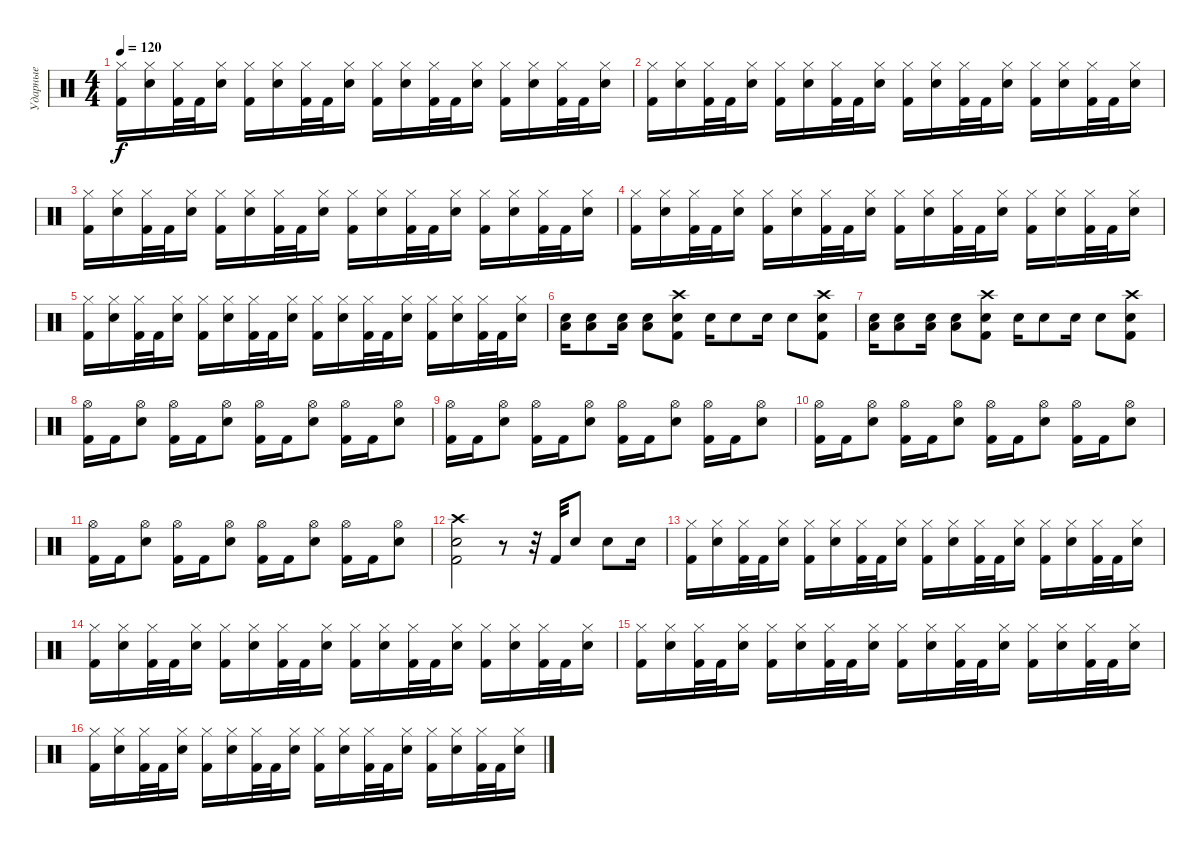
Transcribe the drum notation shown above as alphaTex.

\track ("Ударные" "Ударные") {instrument percussion}
\staff {score}
\articulation defaults
\ts (4 4)
\tempo 120
\clef neutral
\ks c
("Hi-Hat (closed)" "Kick (hit) 2").16{dy f} ("Hi-Hat (closed)" "Electric Snare (hit)").16 ("Hi-Hat (closed)" "Kick (hit) 2").32 "Kick (hit) 2".32 ("Hi-Hat (closed)" "Electric Snare (hit)").16 ("Hi-Hat (closed)" "Kick (hit) 2").16 ("Hi-Hat (closed)" "Electric Snare (hit)").16 ("Hi-Hat (closed)" "Kick (hit) 2").32 "Kick (hit) 2".32 ("Hi-Hat (closed)" "Electric Snare (hit)").16 ("Hi-Hat (closed)" "Kick (hit) 2").16 ("Hi-Hat (closed)" "Electric Snare (hit)").16 ("Hi-Hat (closed)" "Kick (hit) 2").32 "Kick (hit) 2".32 ("Hi-Hat (closed)" "Electric Snare (hit)").16 ("Hi-Hat (closed)" "Kick (hit) 2").16 ("Hi-Hat (closed)" "Electric Snare (hit)").16 ("Hi-Hat (closed)" "Kick (hit) 2").32 "Kick (hit) 2".32 ("Hi-Hat (closed)" "Electric Snare (hit)").16 |
("Hi-Hat (closed)" "Kick (hit) 2").16 ("Hi-Hat (closed)" "Electric Snare (hit)").16 ("Hi-Hat (closed)" "Kick (hit) 2").32 "Kick (hit) 2".32 ("Hi-Hat (closed)" "Electric Snare (hit)").16 ("Hi-Hat (closed)" "Kick (hit) 2").16 ("Hi-Hat (closed)" "Electric Snare (hit)").16 ("Hi-Hat (closed)" "Kick (hit) 2").32 "Kick (hit) 2".32 ("Hi-Hat (closed)" "Electric Snare (hit)").16 ("Hi-Hat (closed)" "Kick (hit) 2").16 ("Hi-Hat (closed)" "Electric Snare (hit)").16 ("Hi-Hat (closed)" "Kick (hit) 2").32 "Kick (hit) 2".32 ("Hi-Hat (closed)" "Electric Snare (hit)").16 ("Hi-Hat (closed)" "Kick (hit) 2").16 ("Hi-Hat (closed)" "Electric Snare (hit)").16 ("Hi-Hat (closed)" "Kick (hit) 2").32 "Kick (hit) 2".32 ("Hi-Hat (closed)" "Electric Snare (hit)").16 |
("Hi-Hat (closed)" "Kick (hit) 2").16 ("Hi-Hat (closed)" "Electric Snare (hit)").16 ("Hi-Hat (closed)" "Kick (hit) 2").32 "Kick (hit) 2".32 ("Hi-Hat (closed)" "Electric Snare (hit)").16 ("Hi-Hat (closed)" "Kick (hit) 2").16 ("Hi-Hat (closed)" "Electric Snare (hit)").16 ("Hi-Hat (closed)" "Kick (hit) 2").32 "Kick (hit) 2".32 ("Hi-Hat (closed)" "Electric Snare (hit)").16 ("Hi-Hat (closed)" "Kick (hit) 2").16 ("Hi-Hat (closed)" "Electric Snare (hit)").16 ("Hi-Hat (closed)" "Kick (hit) 2").32 "Kick (hit) 2".32 ("Hi-Hat (closed)" "Electric Snare (hit)").16 ("Hi-Hat (closed)" "Kick (hit) 2").16 ("Hi-Hat (closed)" "Electric Snare (hit)").16 ("Hi-Hat (closed)" "Kick (hit) 2").32 "Kick (hit) 2".32 ("Hi-Hat (closed)" "Electric Snare (hit)").16 |
("Hi-Hat (closed)" "Kick (hit) 2").16 ("Hi-Hat (closed)" "Electric Snare (hit)").16 ("Hi-Hat (closed)" "Kick (hit) 2").32 "Kick (hit) 2".32 ("Hi-Hat (closed)" "Electric Snare (hit)").16 ("Hi-Hat (closed)" "Kick (hit) 2").16 ("Hi-Hat (closed)" "Electric Snare (hit)").16 ("Hi-Hat (closed)" "Kick (hit) 2").32 "Kick (hit) 2".32 ("Hi-Hat (closed)" "Electric Snare (hit)").16 ("Hi-Hat (closed)" "Kick (hit) 2").16 ("Hi-Hat (closed)" "Electric Snare (hit)").16 ("Hi-Hat (closed)" "Kick (hit) 2").32 "Kick (hit) 2".32 ("Hi-Hat (closed)" "Electric Snare (hit)").16 ("Hi-Hat (closed)" "Kick (hit) 2").16 ("Hi-Hat (closed)" "Electric Snare (hit)").16 ("Hi-Hat (closed)" "Kick (hit) 2").32 "Kick (hit) 2".32 ("Hi-Hat (closed)" "Electric Snare (hit)").16 |
("Hi-Hat (closed)" "Kick (hit) 2").16 ("Hi-Hat (closed)" "Electric Snare (hit)").16 ("Hi-Hat (closed)" "Kick (hit) 2").32 "Kick (hit) 2".32 ("Hi-Hat (closed)" "Electric Snare (hit)").16 ("Hi-Hat (closed)" "Kick (hit) 2").16 ("Hi-Hat (closed)" "Electric Snare (hit)").16 ("Hi-Hat (closed)" "Kick (hit) 2").32 "Kick (hit) 2".32 ("Hi-Hat (closed)" "Electric Snare (hit)").16 ("Hi-Hat (closed)" "Kick (hit) 2").16 ("Hi-Hat (closed)" "Electric Snare (hit)").16 ("Hi-Hat (closed)" "Kick (hit) 2").32 "Kick (hit) 2".32 ("Hi-Hat (closed)" "Electric Snare (hit)").16 ("Hi-Hat (closed)" "Kick (hit) 2").16 ("Hi-Hat (closed)" "Electric Snare (hit)").16 ("Hi-Hat (closed)" "Kick (hit) 2").32 "Kick (hit) 2".32 ("Hi-Hat (closed)" "Electric Snare (hit)").16 |
("Low Floor Tom (hit)" "Electric Snare (hit)").16 ("Low Floor Tom (hit)" "Electric Snare (hit)").8 ("Low Floor Tom (hit)" "Electric Snare (hit)").16 ("Low Floor Tom (hit)" "Electric Snare (hit)").8 ("Crash high (hit)" "Electric Snare (hit)" "Kick (hit) 2").8 "Electric Snare (hit)".16 "Electric Snare (hit)".8 "Electric Snare (hit)".16 "Electric Snare (hit)".8 ("Crash high (hit)" "Electric Snare (hit)" "Kick (hit) 2").8 |
("Low Floor Tom (hit)" "Electric Snare (hit)").16 ("Low Floor Tom (hit)" "Electric Snare (hit)").8 ("Low Floor Tom (hit)" "Electric Snare (hit)").16 ("Low Floor Tom (hit)" "Electric Snare (hit)").8 ("Crash high (hit)" "Electric Snare (hit)" "Kick (hit) 2").8 "Electric Snare (hit)".16 "Electric Snare (hit)".8 "Electric Snare (hit)".16 "Electric Snare (hit)".8 ("Crash high (hit)" "Electric Snare (hit)" "Kick (hit) 2").8 |
("Hi-Hat (open)" "Kick (hit) 2").16 "Kick (hit) 2".16 ("Hi-Hat (open)" "Electric Snare (hit)").8 ("Hi-Hat (open)" "Kick (hit) 2").16 "Kick (hit) 2".16 ("Hi-Hat (open)" "Electric Snare (hit)").8 ("Hi-Hat (open)" "Kick (hit) 2").16 "Kick (hit) 2".16 ("Hi-Hat (open)" "Electric Snare (hit)").8 ("Hi-Hat (open)" "Kick (hit) 2").16 "Kick (hit) 2".16 ("Hi-Hat (open)" "Electric Snare (hit)").8 |
("Hi-Hat (open)" "Kick (hit) 2").16 "Kick (hit) 2".16 ("Hi-Hat (open)" "Electric Snare (hit)").8 ("Hi-Hat (open)" "Kick (hit) 2").16 "Kick (hit) 2".16 ("Hi-Hat (open)" "Electric Snare (hit)").8 ("Hi-Hat (open)" "Kick (hit) 2").16 "Kick (hit) 2".16 ("Hi-Hat (open)" "Electric Snare (hit)").8 ("Hi-Hat (open)" "Kick (hit) 2").16 "Kick (hit) 2".16 ("Hi-Hat (open)" "Electric Snare (hit)").8 |
("Hi-Hat (open)" "Kick (hit) 2").16 "Kick (hit) 2".16 ("Hi-Hat (open)" "Electric Snare (hit)").8 ("Hi-Hat (open)" "Kick (hit) 2").16 "Kick (hit) 2".16 ("Hi-Hat (open)" "Electric Snare (hit)").8 ("Hi-Hat (open)" "Kick (hit) 2").16 "Kick (hit) 2".16 ("Hi-Hat (open)" "Electric Snare (hit)").8 ("Hi-Hat (open)" "Kick (hit) 2").16 "Kick (hit) 2".16 ("Hi-Hat (open)" "Electric Snare (hit)").8 |
("Hi-Hat (open)" "Kick (hit) 2").16 "Kick (hit) 2".16 ("Hi-Hat (open)" "Electric Snare (hit)").8 ("Hi-Hat (open)" "Kick (hit) 2").16 "Kick (hit) 2".16 ("Hi-Hat (open)" "Electric Snare (hit)").8 ("Hi-Hat (open)" "Kick (hit) 2").16 "Kick (hit) 2".16 ("Hi-Hat (open)" "Electric Snare (hit)").8 ("Hi-Hat (open)" "Kick (hit) 2").16 "Kick (hit) 2".16 ("Hi-Hat (open)" "Electric Snare (hit)").8 |
("Crash high (hit)" "Electric Snare (hit)" "Kick (hit) 2").2 r.8 r.32 "Kick (hit) 2".32 "Electric Snare (hit)".8 "Electric Snare (hit)".8 "Electric Snare (hit)".16 |
("Hi-Hat (closed)" "Kick (hit) 2").16 ("Hi-Hat (closed)" "Electric Snare (hit)").16 ("Hi-Hat (closed)" "Kick (hit) 2").32 "Kick (hit) 2".32 ("Hi-Hat (closed)" "Electric Snare (hit)").16 ("Hi-Hat (closed)" "Kick (hit) 2").16 ("Hi-Hat (closed)" "Electric Snare (hit)").16 ("Hi-Hat (closed)" "Kick (hit) 2").32 "Kick (hit) 2".32 ("Hi-Hat (closed)" "Electric Snare (hit)").16 ("Hi-Hat (closed)" "Kick (hit) 2").16 ("Hi-Hat (closed)" "Electric Snare (hit)").16 ("Hi-Hat (closed)" "Kick (hit) 2").32 "Kick (hit) 2".32 ("Hi-Hat (closed)" "Electric Snare (hit)").16 ("Hi-Hat (closed)" "Kick (hit) 2").16 ("Hi-Hat (closed)" "Electric Snare (hit)").16 ("Hi-Hat (closed)" "Kick (hit) 2").32 "Kick (hit) 2".32 ("Hi-Hat (closed)" "Electric Snare (hit)").16 |
("Hi-Hat (closed)" "Kick (hit) 2").16 ("Hi-Hat (closed)" "Electric Snare (hit)").16 ("Hi-Hat (closed)" "Kick (hit) 2").32 "Kick (hit) 2".32 ("Hi-Hat (closed)" "Electric Snare (hit)").16 ("Hi-Hat (closed)" "Kick (hit) 2").16 ("Hi-Hat (closed)" "Electric Snare (hit)").16 ("Hi-Hat (closed)" "Kick (hit) 2").32 "Kick (hit) 2".32 ("Hi-Hat (closed)" "Electric Snare (hit)").16 ("Hi-Hat (closed)" "Kick (hit) 2").16 ("Hi-Hat (closed)" "Electric Snare (hit)").16 ("Hi-Hat (closed)" "Kick (hit) 2").32 "Kick (hit) 2".32 ("Hi-Hat (closed)" "Electric Snare (hit)").16 ("Hi-Hat (closed)" "Kick (hit) 2").16 ("Hi-Hat (closed)" "Electric Snare (hit)").16 ("Hi-Hat (closed)" "Kick (hit) 2").32 "Kick (hit) 2".32 ("Hi-Hat (closed)" "Electric Snare (hit)").16 |
("Hi-Hat (closed)" "Kick (hit) 2").16 ("Hi-Hat (closed)" "Electric Snare (hit)").16 ("Hi-Hat (closed)" "Kick (hit) 2").32 "Kick (hit) 2".32 ("Hi-Hat (closed)" "Electric Snare (hit)").16 ("Hi-Hat (closed)" "Kick (hit) 2").16 ("Hi-Hat (closed)" "Electric Snare (hit)").16 ("Hi-Hat (closed)" "Kick (hit) 2").32 "Kick (hit) 2".32 ("Hi-Hat (closed)" "Electric Snare (hit)").16 ("Hi-Hat (closed)" "Kick (hit) 2").16 ("Hi-Hat (closed)" "Electric Snare (hit)").16 ("Hi-Hat (closed)" "Kick (hit) 2").32 "Kick (hit) 2".32 ("Hi-Hat (closed)" "Electric Snare (hit)").16 ("Hi-Hat (closed)" "Kick (hit) 2").16 ("Hi-Hat (closed)" "Electric Snare (hit)").16 ("Hi-Hat (closed)" "Kick (hit) 2").32 "Kick (hit) 2".32 ("Hi-Hat (closed)" "Electric Snare (hit)").16 |
("Hi-Hat (closed)" "Kick (hit) 2").16 ("Hi-Hat (closed)" "Electric Snare (hit)").16 ("Hi-Hat (closed)" "Kick (hit) 2").32 "Kick (hit) 2".32 ("Hi-Hat (closed)" "Electric Snare (hit)").16 ("Hi-Hat (closed)" "Kick (hit) 2").16 ("Hi-Hat (closed)" "Electric Snare (hit)").16 ("Hi-Hat (closed)" "Kick (hit) 2").32 "Kick (hit) 2".32 ("Hi-Hat (closed)" "Electric Snare (hit)").16 ("Hi-Hat (closed)" "Kick (hit) 2").16 ("Hi-Hat (closed)" "Electric Snare (hit)").16 ("Hi-Hat (closed)" "Kick (hit) 2").32 "Kick (hit) 2".32 ("Hi-Hat (closed)" "Electric Snare (hit)").16 ("Hi-Hat (closed)" "Kick (hit) 2").16 ("Hi-Hat (closed)" "Electric Snare (hit)").16 ("Hi-Hat (closed)" "Kick (hit) 2").32 "Kick (hit) 2".32 ("Hi-Hat (closed)" "Electric Snare (hit)").16
